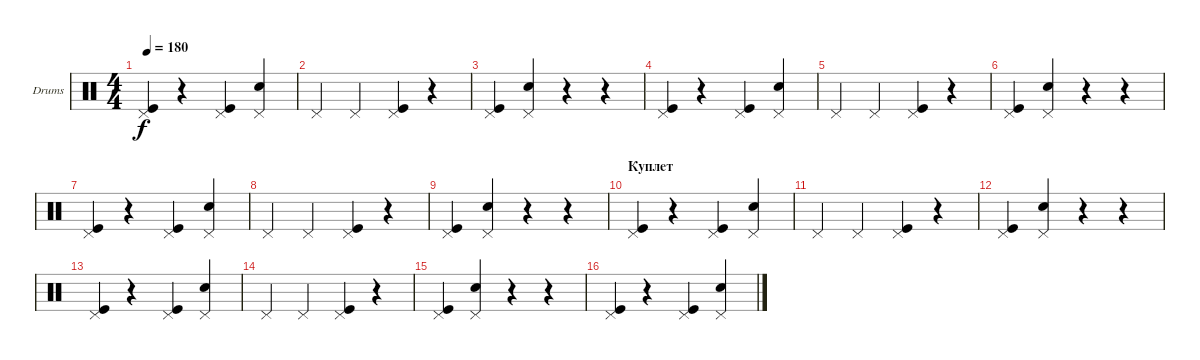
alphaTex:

\defaultSystemsLayout 4
\bracketExtendMode groupsimilarinstruments
\firstSystemTrackNameOrientation horizontal
\otherSystemsTrackNameOrientation horizontal
\track ("Георгий Гурьянов" "Drums") {instrument percussion}
\staff {score}
\articulation defaults
\ts (4 4)
\tempo 180
\clef neutral
\ks c
("Pedal Hi-Hat (hit)" "Kick (hit)").4{dy f} r.4 ("Pedal Hi-Hat (hit)" "Kick (hit)").4 ("Pedal Hi-Hat (hit)" "Snare (hit) 2").4 |
"Pedal Hi-Hat (hit)".4 "Pedal Hi-Hat (hit)".4 ("Pedal Hi-Hat (hit)" "Kick (hit)").4 r.4 |
("Pedal Hi-Hat (hit)" "Kick (hit)").4 ("Pedal Hi-Hat (hit)" "Snare (hit) 2").4 r.4 r.4 |
("Pedal Hi-Hat (hit)" "Kick (hit)").4 r.4 ("Pedal Hi-Hat (hit)" "Kick (hit)").4 ("Pedal Hi-Hat (hit)" "Snare (hit) 2").4 |
"Pedal Hi-Hat (hit)".4 "Pedal Hi-Hat (hit)".4 ("Pedal Hi-Hat (hit)" "Kick (hit)").4 r.4 |
("Pedal Hi-Hat (hit)" "Kick (hit)").4 ("Pedal Hi-Hat (hit)" "Snare (hit) 2").4 r.4 r.4 |
("Pedal Hi-Hat (hit)" "Kick (hit)").4 r.4 ("Pedal Hi-Hat (hit)" "Kick (hit)").4 ("Pedal Hi-Hat (hit)" "Snare (hit) 2").4 |
"Pedal Hi-Hat (hit)".4 "Pedal Hi-Hat (hit)".4 ("Pedal Hi-Hat (hit)" "Kick (hit)").4 r.4 |
("Pedal Hi-Hat (hit)" "Kick (hit)").4 ("Pedal Hi-Hat (hit)" "Snare (hit) 2").4 r.4 r.4 |
\section ("" "Куплет")
("Pedal Hi-Hat (hit)" "Kick (hit)").4 r.4 ("Pedal Hi-Hat (hit)" "Kick (hit)").4 ("Pedal Hi-Hat (hit)" "Snare (hit) 2").4 |
"Pedal Hi-Hat (hit)".4 "Pedal Hi-Hat (hit)".4 ("Pedal Hi-Hat (hit)" "Kick (hit)").4 r.4 |
("Pedal Hi-Hat (hit)" "Kick (hit)").4 ("Pedal Hi-Hat (hit)" "Snare (hit) 2").4 r.4 r.4 |
("Pedal Hi-Hat (hit)" "Kick (hit)").4 r.4 ("Pedal Hi-Hat (hit)" "Kick (hit)").4 ("Pedal Hi-Hat (hit)" "Snare (hit) 2").4 |
"Pedal Hi-Hat (hit)".4 "Pedal Hi-Hat (hit)".4 ("Pedal Hi-Hat (hit)" "Kick (hit)").4 r.4 |
("Pedal Hi-Hat (hit)" "Kick (hit)").4 ("Pedal Hi-Hat (hit)" "Snare (hit) 2").4 r.4 r.4 |
("Pedal Hi-Hat (hit)" "Kick (hit)").4 r.4 ("Pedal Hi-Hat (hit)" "Kick (hit)").4 ("Pedal Hi-Hat (hit)" "Snare (hit) 2").4
